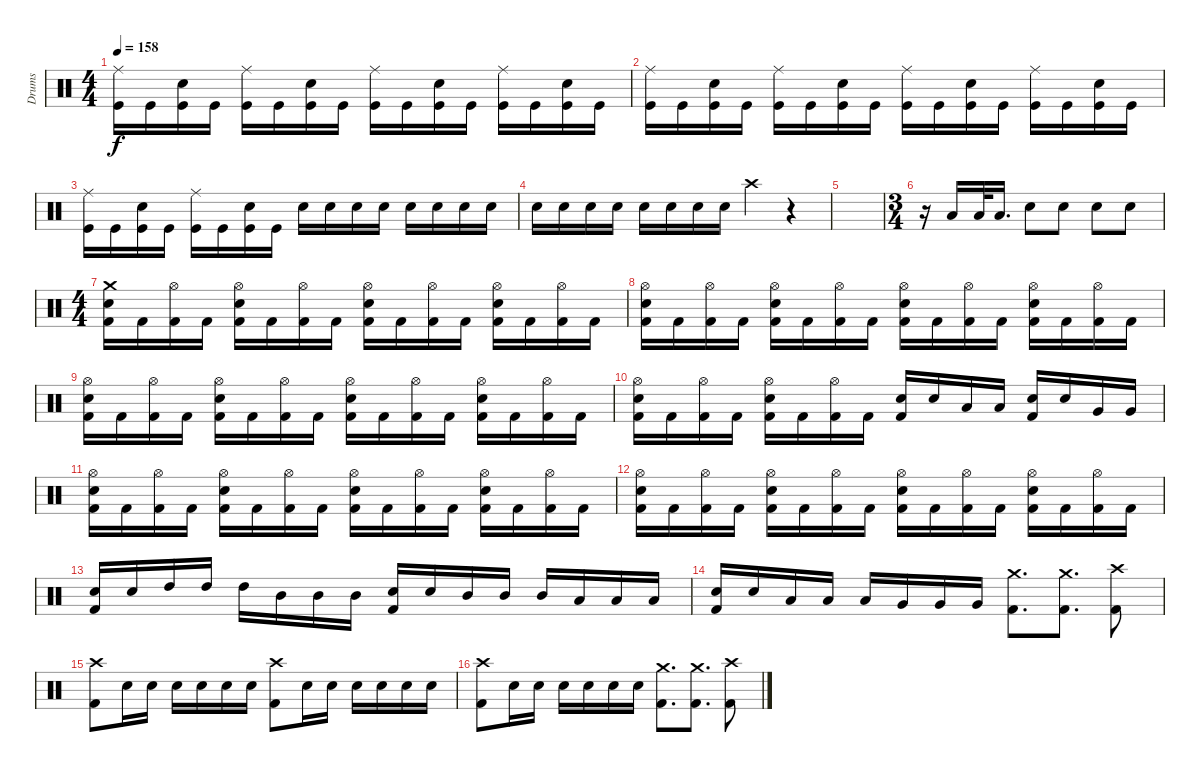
\track ("Drums" "Drums") {instrument percussion}
\staff {score}
\articulation defaults
\ts (4 4)
\tempo 158
\clef neutral
\ks c
("Ride (middle)" "Kick (hit)").16{dy f} "Kick (hit)".16 ("Snare (hit) 2" "Kick (hit)").16 "Kick (hit)".16 ("Ride (middle)" "Kick (hit)").16 "Kick (hit)".16 ("Snare (hit) 2" "Kick (hit)").16 "Kick (hit)".16 ("Ride (middle)" "Kick (hit)").16 "Kick (hit)".16 ("Snare (hit) 2" "Kick (hit)").16 "Kick (hit)".16 ("Ride (middle)" "Kick (hit)").16 "Kick (hit)".16 ("Snare (hit) 2" "Kick (hit)").16 "Kick (hit)".16 |
("Ride (middle)" "Kick (hit)").16 "Kick (hit)".16 ("Snare (hit) 2" "Kick (hit)").16 "Kick (hit)".16 ("Ride (middle)" "Kick (hit)").16 "Kick (hit)".16 ("Snare (hit) 2" "Kick (hit)").16 "Kick (hit)".16 ("Ride (middle)" "Kick (hit)").16 "Kick (hit)".16 ("Snare (hit) 2" "Kick (hit)").16 "Kick (hit)".16 ("Ride (middle)" "Kick (hit)").16 "Kick (hit)".16 ("Snare (hit) 2" "Kick (hit)").16 "Kick (hit)".16 |
("Ride (middle)" "Kick (hit)").16 "Kick (hit)".16 ("Snare (hit) 2" "Kick (hit)").16 "Kick (hit)".16 ("Ride (middle)" "Kick (hit)").16 "Kick (hit)".16 ("Snare (hit) 2" "Kick (hit)").16 "Kick (hit)".16 "Snare (hit) 2".16 "Snare (hit) 2".16 "Snare (hit) 2".16 "Snare (hit) 2".16 "Snare (hit) 2".16 "Snare (hit) 2".16 "Snare (hit) 2".16 "Snare (hit) 2".16 |
"Snare (hit) 2".16 "Snare (hit) 2".16 "Snare (hit) 2".16 "Snare (hit) 2".16 "Snare (hit) 2".16 "Snare (hit) 2".16 "Snare (hit) 2".16 "Snare (hit) 2".16 "Crash high (hit)".4 r.4 |
|
\ts (3 4)
r.16 "Low Tom (hit)".16 "Low Tom (hit)".32 "Low Floor Tom (hit)".16{d} "Snare (hit) 2".8 "Snare (hit) 2".8 "Snare (hit) 2".8 "Snare (hit) 2".8 |
\ts (4 4)
("Crash medium (hit)" "Snare (hit) 2" "Kick (hit) 2").16 "Kick (hit) 2".16 ("Hi-Hat (open)" "Kick (hit) 2").16 "Kick (hit) 2".16 ("Hi-Hat (open)" "Snare (hit) 2" "Kick (hit) 2").16 "Kick (hit) 2".16 ("Hi-Hat (open)" "Kick (hit) 2").16 "Kick (hit) 2".16 ("Hi-Hat (open)" "Snare (hit) 2" "Kick (hit) 2").16 "Kick (hit) 2".16 ("Hi-Hat (open)" "Kick (hit) 2").16 "Kick (hit) 2".16 ("Hi-Hat (open)" "Snare (hit) 2" "Kick (hit) 2").16 "Kick (hit) 2".16 ("Hi-Hat (open)" "Kick (hit) 2").16 "Kick (hit) 2".16 |
("Hi-Hat (open)" "Snare (hit) 2" "Kick (hit) 2").16 "Kick (hit) 2".16 ("Hi-Hat (open)" "Kick (hit) 2").16 "Kick (hit) 2".16 ("Hi-Hat (open)" "Snare (hit) 2" "Kick (hit) 2").16 "Kick (hit) 2".16 ("Hi-Hat (open)" "Kick (hit) 2").16 "Kick (hit) 2".16 ("Hi-Hat (open)" "Snare (hit) 2" "Kick (hit) 2").16 "Kick (hit) 2".16 ("Hi-Hat (open)" "Kick (hit) 2").16 "Kick (hit) 2".16 ("Hi-Hat (open)" "Snare (hit) 2" "Kick (hit) 2").16 "Kick (hit) 2".16 ("Hi-Hat (open)" "Kick (hit) 2").16 "Kick (hit) 2".16 |
("Hi-Hat (open)" "Snare (hit) 2" "Kick (hit) 2").16 "Kick (hit) 2".16 ("Hi-Hat (open)" "Kick (hit) 2").16 "Kick (hit) 2".16 ("Hi-Hat (open)" "Snare (hit) 2" "Kick (hit) 2").16 "Kick (hit) 2".16 ("Hi-Hat (open)" "Kick (hit) 2").16 "Kick (hit) 2".16 ("Hi-Hat (open)" "Snare (hit) 2" "Kick (hit) 2").16 "Kick (hit) 2".16 ("Hi-Hat (open)" "Kick (hit) 2").16 "Kick (hit) 2".16 ("Hi-Hat (open)" "Snare (hit) 2" "Kick (hit) 2").16 "Kick (hit) 2".16 ("Hi-Hat (open)" "Kick (hit) 2").16 "Kick (hit) 2".16 |
("Hi-Hat (open)" "Snare (hit) 2" "Kick (hit) 2").16 "Kick (hit) 2".16 ("Hi-Hat (open)" "Kick (hit) 2").16 "Kick (hit) 2".16 ("Hi-Hat (open)" "Snare (hit) 2" "Kick (hit) 2").16 "Kick (hit) 2".16 ("Hi-Hat (open)" "Kick (hit) 2").16 "Kick (hit) 2".16 ("Snare (hit) 2" "Kick (hit) 2").16 "Snare (hit) 2".16 "Low Tom (hit)".16 "Low Tom (hit)".16 ("Snare (hit) 2" "Kick (hit) 2").16 "Snare (hit) 2".16 "Very Low Tom (hit)".16 "Very Low Tom (hit)".16 |
("Hi-Hat (open)" "Snare (hit) 2" "Kick (hit) 2").16 "Kick (hit) 2".16 ("Hi-Hat (open)" "Kick (hit) 2").16 "Kick (hit) 2".16 ("Hi-Hat (open)" "Snare (hit) 2" "Kick (hit) 2").16 "Kick (hit) 2".16 ("Hi-Hat (open)" "Kick (hit) 2").16 "Kick (hit) 2".16 ("Hi-Hat (open)" "Snare (hit) 2" "Kick (hit) 2").16 "Kick (hit) 2".16 ("Hi-Hat (open)" "Kick (hit) 2").16 "Kick (hit) 2".16 ("Hi-Hat (open)" "Snare (hit) 2" "Kick (hit) 2").16 "Kick (hit) 2".16 ("Hi-Hat (open)" "Kick (hit) 2").16 "Kick (hit) 2".16 |
("Hi-Hat (open)" "Snare (hit) 2" "Kick (hit) 2").16 "Kick (hit) 2".16 ("Hi-Hat (open)" "Kick (hit) 2").16 "Kick (hit) 2".16 ("Hi-Hat (open)" "Snare (hit) 2" "Kick (hit) 2").16 "Kick (hit) 2".16 ("Hi-Hat (open)" "Kick (hit) 2").16 "Kick (hit) 2".16 ("Hi-Hat (open)" "Snare (hit) 2" "Kick (hit) 2").16 "Kick (hit) 2".16 ("Hi-Hat (open)" "Kick (hit) 2").16 "Kick (hit) 2".16 ("Hi-Hat (open)" "Snare (hit) 2" "Kick (hit) 2").16 "Kick (hit) 2".16 ("Hi-Hat (open)" "Kick (hit) 2").16 "Kick (hit) 2".16 |
("Snare (hit) 2" "Kick (hit) 2").16 "Snare (hit) 2".16 "High Tom (hit)".16 "High Tom (hit)".16 "High Tom (hit)".16 "Mid Tom (hit)".16 "Mid Tom (hit)".16 "Mid Tom (hit)".16 ("Snare (hit) 2" "Kick (hit) 2").16 "Snare (hit) 2".16 "Mid Tom (hit)".16 "Mid Tom (hit)".16 "Mid Tom (hit)".16 "Low Tom (hit)".16 "Low Tom (hit)".16 "Low Tom (hit)".16 |
("Snare (hit) 2" "Kick (hit) 2").16 "Snare (hit) 2".16 "Low Tom (hit)".16 "Low Tom (hit)".16 "Low Tom (hit)".16 "Very Low Tom (hit)".16 "Very Low Tom (hit)".16 "Very Low Tom (hit)".16 ("Crash medium (hit)" "Kick (hit) 2").8{d} ("Crash medium (hit)" "Kick (hit) 2").8{d} ("Crash high (hit)" "Kick (hit) 2").8 |
("Crash high (hit)" "Kick (hit) 2").8 "Snare (hit) 2".16 "Snare (hit) 2".16 "Snare (hit) 2".16 "Snare (hit) 2".16 "Snare (hit) 2".16 "Snare (hit) 2".16 ("Crash high (hit)" "Kick (hit) 2").8 "Snare (hit) 2".16 "Snare (hit) 2".16 "Snare (hit) 2".16 "Snare (hit) 2".16 "Snare (hit) 2".16 "Snare (hit) 2".16 |
("Crash high (hit)" "Kick (hit) 2").8 "Snare (hit) 2".16 "Snare (hit) 2".16 "Snare (hit) 2".16 "Snare (hit) 2".16 "Snare (hit) 2".16 "Snare (hit) 2".16 ("Crash medium (hit)" "Kick (hit) 2").8{d} ("Crash medium (hit)" "Kick (hit) 2").8{d} ("Crash high (hit)" "Kick (hit) 2").8
